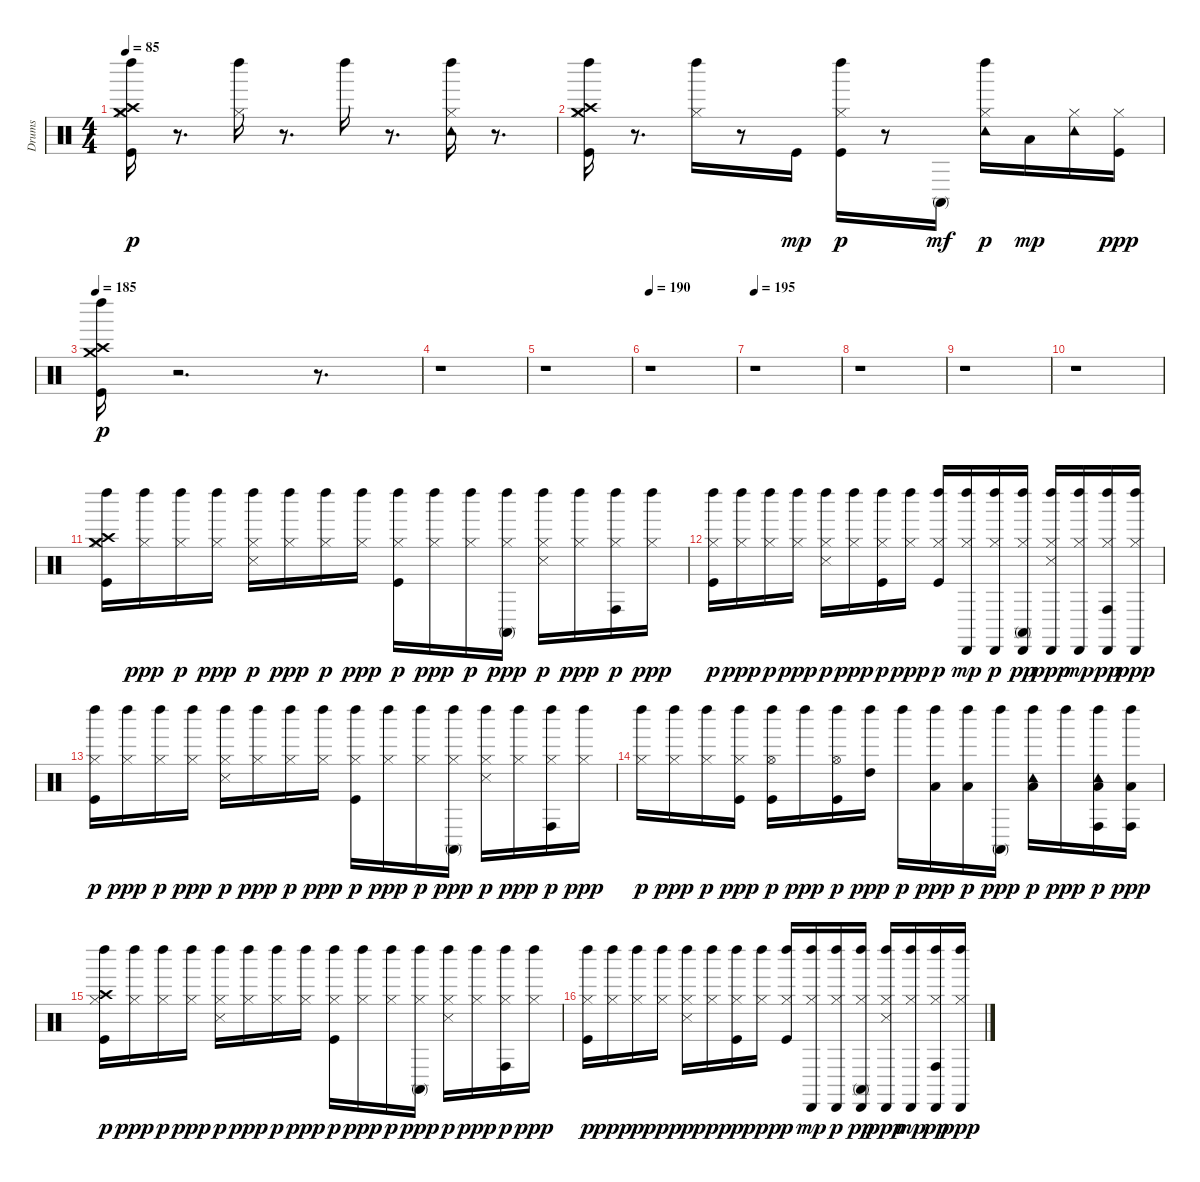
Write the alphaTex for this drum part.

\track ("Drums" "Drums") {instrument percussion}
\staff {score}
\articulation defaults
\ts (4 4)
\tempo 85
\clef neutral
\ks c
("Crash medium (hit)" "Crash high (hit)" "Kick (hit)" "Hi-Hat (closed)" "Left Maraca (hit)").16{dy p} r.8{d} ("Hi-Hat (closed)" "Left Maraca (hit)").16 r.8{d} "Left Maraca (hit)".16 r.8{d} ("Hi-Hat (closed)" "Tambourine (hit)" "Left Maraca (hit)").16 r.8{d} |
("Crash medium (hit)" "Crash high (hit)" "Kick (hit)" "Hi-Hat (closed)" "Left Maraca (hit)").16 r.8{d} ("Hi-Hat (closed)" "Left Maraca (hit)").16 r.8 "Kick (hit)".16{dy mp} ("Kick (hit)" "Hi-Hat (closed)" "Left Maraca (hit)").16{dy p} r.8 "Conga high (mute)".16{dy mf} ("Hi-Hat (closed)" "Tambourine (hit)" "Left Maraca (hit)").16{dy p} "Low Floor Tom (hit)".16{dy mp} ("Tambourine (hit)" "Hi-Hat (closed)").16 ("Kick (hit)" "Hi-Hat (closed)").16{dy ppp} |
\tempo 185
("Crash medium (hit)" "Crash high (hit)" "Kick (hit)" "Left Maraca (hit)").16{dy p} r.2{d} r.8{d} |
r.1 |
r.1 |
\tempo 190
r.1 |
\tempo 195
r.1 |
r.1 |
r.1 |
r.1 |
("Crash medium (hit)" "Kick (hit)" "Hi-Hat (closed)" "Crash high (hit)" "Left Maraca (hit)").16 ("Hi-Hat (closed)" "Left Maraca (hit)").16{dy ppp} ("Hi-Hat (closed)" "Left Maraca (hit)").16{dy p} ("Hi-Hat (closed)" "Left Maraca (hit)").16{dy ppp} ("Hi-Hat (closed)" "Snare (side stick) 3" "Left Maraca (hit)").16{dy p} ("Hi-Hat (closed)" "Left Maraca (hit)").16{dy ppp} ("Hi-Hat (closed)" "Left Maraca (hit)").16{dy p} ("Hi-Hat (closed)" "Left Maraca (hit)").16{dy ppp} ("Kick (hit)" "Hi-Hat (closed)" "Left Maraca (hit)").16{dy p} ("Hi-Hat (closed)" "Left Maraca (hit)").16{dy ppp} ("Hi-Hat (closed)" "Left Maraca (hit)").16{dy p} ("Hi-Hat (closed)" "Conga high (mute)" "Left Maraca (hit)").16{dy ppp} ("Hi-Hat (closed)" "Snare (side stick) 3" "Left Maraca (hit)").16{dy p} ("Hi-Hat (closed)" "Left Maraca (hit)").16{dy ppp} ("Hi-Hat (closed)" "Conga high (hit)" "Left Maraca (hit)").16{dy p} ("Hi-Hat (closed)" "Left Maraca (hit)").16{dy ppp} |
("Kick (hit)" "Hi-Hat (closed)" "Left Maraca (hit)").16{dy p} ("Hi-Hat (closed)" "Left Maraca (hit)").16{dy ppp} ("Hi-Hat (closed)" "Left Maraca (hit)").16{dy p} ("Hi-Hat (closed)" "Left Maraca (hit)").16{dy ppp} ("Hi-Hat (closed)" "Snare (side stick) 3" "Left Maraca (hit)").16{dy p} ("Hi-Hat (closed)" "Left Maraca (hit)").16{dy ppp} ("Kick (hit)" "Hi-Hat (closed)" "Left Maraca (hit)").16{dy p} ("Hi-Hat (closed)" "Left Maraca (hit)").16{dy ppp} ("Kick (hit)" "Hi-Hat (closed)" "Left Maraca (hit)").16{dy p} ("Hi-Hat (closed)" "Left Maraca (hit)" "Cabasa (hit)").16{dy mp} ("Hi-Hat (closed)" "Left Maraca (hit)" "Cabasa (hit)").16{dy p} ("Hi-Hat (closed)" "Conga high (mute)" "Left Maraca (hit)" "Cabasa (hit)").16{dy pp} ("Hi-Hat (closed)" "Snare (side stick) 3" "Left Maraca (hit)" "Cabasa (hit)").16{dy ppp} ("Hi-Hat (closed)" "Left Maraca (hit)" "Cabasa (hit)").16{dy mp} ("Hi-Hat (closed)" "Conga high (hit)" "Left Maraca (hit)" "Cabasa (hit)").16{dy pp} ("Hi-Hat (closed)" "Left Maraca (hit)" "Cabasa (hit)").16{dy ppp} |
("Kick (hit)" "Hi-Hat (closed)" "Left Maraca (hit)").16{dy p} ("Hi-Hat (closed)" "Left Maraca (hit)").16{dy ppp} ("Hi-Hat (closed)" "Left Maraca (hit)").16{dy p} ("Hi-Hat (closed)" "Left Maraca (hit)").16{dy ppp} ("Hi-Hat (closed)" "Snare (side stick) 3" "Left Maraca (hit)").16{dy p} ("Hi-Hat (closed)" "Left Maraca (hit)").16{dy ppp} ("Hi-Hat (closed)" "Left Maraca (hit)").16{dy p} ("Hi-Hat (closed)" "Left Maraca (hit)").16{dy ppp} ("Kick (hit)" "Hi-Hat (closed)" "Left Maraca (hit)").16{dy p} ("Hi-Hat (closed)" "Left Maraca (hit)").16{dy ppp} ("Hi-Hat (closed)" "Left Maraca (hit)").16{dy p} ("Hi-Hat (closed)" "Conga high (mute)" "Left Maraca (hit)").16{dy ppp} ("Hi-Hat (closed)" "Snare (side stick) 3" "Left Maraca (hit)").16{dy p} ("Hi-Hat (closed)" "Left Maraca (hit)").16{dy ppp} ("Hi-Hat (closed)" "Conga high (hit)" "Left Maraca (hit)").16{dy p} ("Hi-Hat (closed)" "Left Maraca (hit)").16{dy ppp} |
("Hi-Hat (closed)" "Left Maraca (hit)").16{dy p} ("Hi-Hat (closed)" "Left Maraca (hit)").16{dy ppp} ("Hi-Hat (closed)" "Left Maraca (hit)").16{dy p} ("Kick (hit)" "Hi-Hat (closed)" "Left Maraca (hit)").16{dy ppp} ("Kick (hit)" "Hi-Hat (open)" "Left Maraca (hit)").16{dy p} "Left Maraca (hit)".16{dy ppp} ("Kick (hit)" "Hi-Hat (open)" "Left Maraca (hit)").16{dy p} ("High Tom (hit)" "Left Maraca (hit)").16{dy ppp} "Left Maraca (hit)".16{dy p} ("Low Tom (hit)" "Left Maraca (hit)").16{dy ppp} ("Low Tom (hit)" "Left Maraca (hit)").16{dy p} ("Conga high (mute)" "Left Maraca (hit)").16{dy ppp} ("Low Tom (hit)" "Tambourine (hit)" "Left Maraca (hit)").16{dy p} "Left Maraca (hit)".16{dy ppp} ("Low Floor Tom (hit)" "Conga high (hit)" "Tambourine (hit)" "Left Maraca (hit)").16{dy p} ("Low Floor Tom (hit)" "Conga high (hit)" "Left Maraca (hit)").16{dy ppp} |
("Kick (hit)" "Hi-Hat (closed)" "Crash high (hit)" "Left Maraca (hit)").16{dy p} ("Hi-Hat (closed)" "Left Maraca (hit)").16{dy ppp} ("Hi-Hat (closed)" "Left Maraca (hit)").16{dy p} ("Hi-Hat (closed)" "Left Maraca (hit)").16{dy ppp} ("Hi-Hat (closed)" "Snare (side stick) 3" "Left Maraca (hit)").16{dy p} ("Hi-Hat (closed)" "Left Maraca (hit)").16{dy ppp} ("Hi-Hat (closed)" "Left Maraca (hit)").16{dy p} ("Hi-Hat (closed)" "Left Maraca (hit)").16{dy ppp} ("Kick (hit)" "Hi-Hat (closed)" "Left Maraca (hit)").16{dy p} ("Hi-Hat (closed)" "Left Maraca (hit)").16{dy ppp} ("Hi-Hat (closed)" "Left Maraca (hit)").16{dy p} ("Hi-Hat (closed)" "Conga high (mute)" "Left Maraca (hit)").16{dy ppp} ("Hi-Hat (closed)" "Snare (side stick) 3" "Left Maraca (hit)").16{dy p} ("Hi-Hat (closed)" "Left Maraca (hit)").16{dy ppp} ("Hi-Hat (closed)" "Conga high (hit)" "Left Maraca (hit)").16{dy p} ("Hi-Hat (closed)" "Left Maraca (hit)").16{dy ppp} |
("Kick (hit)" "Hi-Hat (closed)" "Left Maraca (hit)").16{dy p} ("Hi-Hat (closed)" "Left Maraca (hit)").16{dy ppp} ("Hi-Hat (closed)" "Left Maraca (hit)").16{dy p} ("Hi-Hat (closed)" "Left Maraca (hit)").16{dy ppp} ("Hi-Hat (closed)" "Snare (side stick) 3" "Left Maraca (hit)").16{dy p} ("Hi-Hat (closed)" "Left Maraca (hit)").16{dy ppp} ("Kick (hit)" "Hi-Hat (closed)" "Left Maraca (hit)").16{dy p} ("Hi-Hat (closed)" "Left Maraca (hit)").16{dy ppp} ("Kick (hit)" "Hi-Hat (closed)" "Left Maraca (hit)").16{dy p} ("Hi-Hat (closed)" "Left Maraca (hit)" "Cabasa (hit)").16{dy mp} ("Hi-Hat (closed)" "Left Maraca (hit)" "Cabasa (hit)").16{dy p} ("Hi-Hat (closed)" "Conga high (mute)" "Left Maraca (hit)" "Cabasa (hit)").16{dy pp} ("Hi-Hat (closed)" "Snare (side stick) 3" "Left Maraca (hit)" "Cabasa (hit)").16{dy ppp} ("Hi-Hat (closed)" "Left Maraca (hit)" "Cabasa (hit)").16{dy mp} ("Hi-Hat (closed)" "Conga high (hit)" "Left Maraca (hit)" "Cabasa (hit)").16{dy pp} ("Hi-Hat (closed)" "Left Maraca (hit)" "Cabasa (hit)").16{dy ppp}
